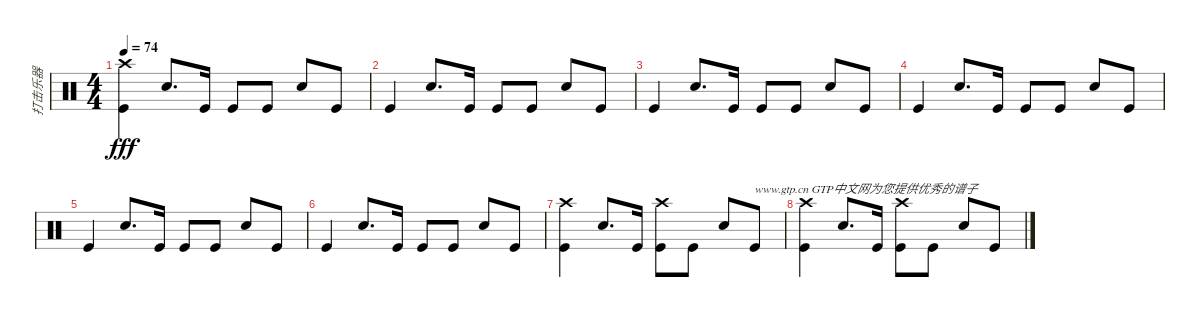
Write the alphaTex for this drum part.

\track ("打击乐器" "打击乐器") {instrument percussion}
\staff {score}
\articulation defaults
\ts (4 4)
\tempo 74
\clef neutral
\ks c
("Crash high (hit)" "Kick (hit)").4{dy fff} "Snare (hit) 2".8{d} "Kick (hit)".16 "Kick (hit)".8 "Kick (hit)".8 "Snare (hit) 2".8 "Kick (hit)".8 |
"Kick (hit)".4 "Snare (hit) 2".8{d} "Kick (hit)".16 "Kick (hit)".8 "Kick (hit)".8 "Snare (hit) 2".8 "Kick (hit)".8 |
"Kick (hit)".4 "Snare (hit) 2".8{d} "Kick (hit)".16 "Kick (hit)".8 "Kick (hit)".8 "Snare (hit) 2".8 "Kick (hit)".8 |
"Kick (hit)".4 "Snare (hit) 2".8{d} "Kick (hit)".16 "Kick (hit)".8 "Kick (hit)".8 "Snare (hit) 2".8 "Kick (hit)".8 |
"Kick (hit)".4 "Snare (hit) 2".8{d} "Kick (hit)".16 "Kick (hit)".8 "Kick (hit)".8 "Snare (hit) 2".8 "Kick (hit)".8 |
"Kick (hit)".4 "Snare (hit) 2".8{d} "Kick (hit)".16 "Kick (hit)".8 "Kick (hit)".8 "Snare (hit) 2".8 "Kick (hit)".8 |
("Crash high (hit)" "Kick (hit)").4 "Snare (hit) 2".8{d} "Kick (hit)".16 ("Crash high (hit)" "Kick (hit)").8 "Kick (hit)".8 "Snare (hit) 2".8 "Kick (hit)".8{txt "www.gtp.cn GTP中文网为您提供优秀的谱子"} |
("Crash high (hit)" "Kick (hit)").4 "Snare (hit) 2".8{d} "Kick (hit)".16 ("Crash high (hit)" "Kick (hit)").8 "Kick (hit)".8 "Snare (hit) 2".8 "Kick (hit)".8
